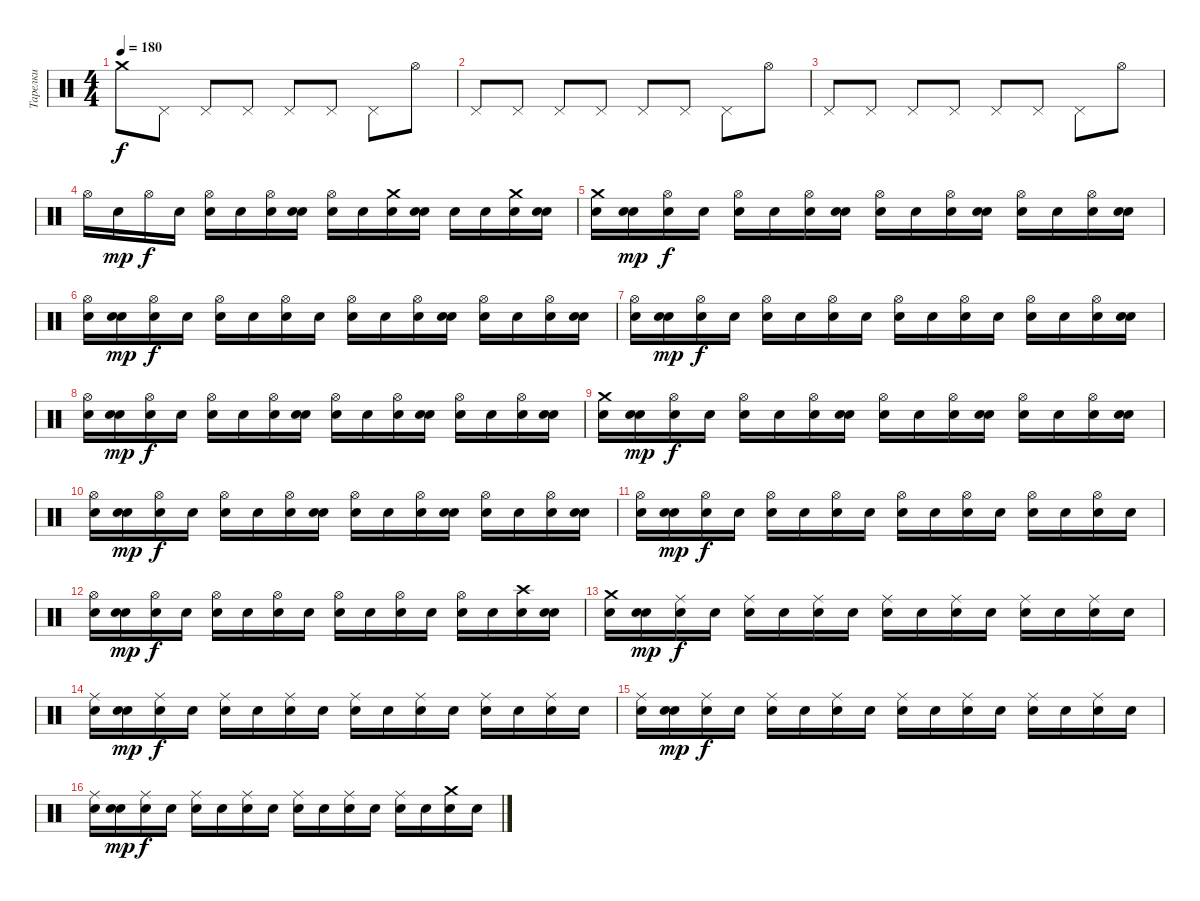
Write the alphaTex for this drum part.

\track ("Тарелки" "Тарелки") {instrument percussion}
\staff {score}
\articulation defaults
\ts (4 4)
\tempo 180
\clef neutral
\ks c "Crash medium (hit)".8{dy f} "Pedal Hi-Hat (hit)".8 "Pedal Hi-Hat (hit)".8 "Pedal Hi-Hat (hit)".8 "Pedal Hi-Hat (hit)".8 "Pedal Hi-Hat (hit)".8 "Pedal Hi-Hat (hit)".8 "Hi-Hat (open)".8
|
"Pedal Hi-Hat (hit)".8 "Pedal Hi-Hat (hit)".8 "Pedal Hi-Hat (hit)".8 "Pedal Hi-Hat (hit)".8 "Pedal Hi-Hat (hit)".8 "Pedal Hi-Hat (hit)".8 "Pedal Hi-Hat (hit)".8 "Hi-Hat (open)".8 |
"Pedal Hi-Hat (hit)".8 "Pedal Hi-Hat (hit)".8 "Pedal Hi-Hat (hit)".8 "Pedal Hi-Hat (hit)".8 "Pedal Hi-Hat (hit)".8 "Pedal Hi-Hat (hit)".8 "Pedal Hi-Hat (hit)".8 "Hi-Hat (open)".8 |
"Hi-Hat (open)".16 "Snare (hit)".16{dy mp} "Hi-Hat (open)".16{dy f} "Snare (hit)".16 ("Hi-Hat (open)" "Snare (hit)").16 "Snare (hit)".16 ("Hi-Hat (open)" "Snare (hit)").16 ("Snare (hit)" "Snare (hit)").16 ("Hi-Hat (open)" "Snare (hit)").16 "Snare (hit)".16 ("Crash medium (hit)" "Snare (hit)").16 ("Snare (hit)" "Snare (hit)").16 "Snare (hit)".16 "Snare (hit)".16 ("Crash medium (hit)" "Snare (hit)").16 ("Snare (hit)" "Snare (hit)").16 |
("Crash medium (hit)" "Snare (hit)").16 ("Snare (hit)" "Snare (hit)").16{dy mp} ("Hi-Hat (open)" "Snare (hit)").16{dy f} "Snare (hit)".16 ("Hi-Hat (open)" "Snare (hit)").16 "Snare (hit)".16 ("Hi-Hat (open)" "Snare (hit)").16 ("Snare (hit)" "Snare (hit)").16 ("Hi-Hat (open)" "Snare (hit)").16 "Snare (hit)".16 ("Hi-Hat (open)" "Snare (hit)").16 ("Snare (hit)" "Snare (hit)").16 ("Hi-Hat (open)" "Snare (hit)").16 "Snare (hit)".16 ("Hi-Hat (open)" "Snare (hit)").16 ("Snare (hit)" "Snare (hit)").16 |
("Hi-Hat (open)" "Snare (hit)").16 ("Snare (hit)" "Snare (hit)").16{dy mp} ("Hi-Hat (open)" "Snare (hit)").16{dy f} "Snare (hit)".16 ("Hi-Hat (open)" "Snare (hit)").16 "Snare (hit)".16 ("Hi-Hat (open)" "Snare (hit)").16 "Snare (hit)".16 ("Hi-Hat (open)" "Snare (hit)").16 "Snare (hit)".16 ("Hi-Hat (open)" "Snare (hit)").16 ("Snare (hit)" "Snare (hit)").16 ("Hi-Hat (open)" "Snare (hit)").16 "Snare (hit)".16 ("Hi-Hat (open)" "Snare (hit)").16 ("Snare (hit)" "Snare (hit)").16 |
("Hi-Hat (open)" "Snare (hit)").16 ("Snare (hit)" "Snare (hit)").16{dy mp} ("Hi-Hat (open)" "Snare (hit)").16{dy f} "Snare (hit)".16 ("Hi-Hat (open)" "Snare (hit)").16 "Snare (hit)".16 ("Hi-Hat (open)" "Snare (hit)").16 "Snare (hit)".16 ("Hi-Hat (open)" "Snare (hit)").16 "Snare (hit)".16 ("Hi-Hat (open)" "Snare (hit)").16 "Snare (hit)".16 ("Hi-Hat (open)" "Snare (hit)").16 "Snare (hit)".16 ("Hi-Hat (open)" "Snare (hit)").16 ("Snare (hit)" "Snare (hit)").16 |
("Hi-Hat (open)" "Snare (hit)").16 ("Snare (hit)" "Snare (hit)").16{dy mp} ("Hi-Hat (open)" "Snare (hit)").16{dy f} "Snare (hit)".16 ("Hi-Hat (open)" "Snare (hit)").16 "Snare (hit)".16 ("Hi-Hat (open)" "Snare (hit)").16 ("Snare (hit)" "Snare (hit)").16 ("Hi-Hat (open)" "Snare (hit)").16 "Snare (hit)".16 ("Hi-Hat (open)" "Snare (hit)").16 ("Snare (hit)" "Snare (hit)").16 ("Hi-Hat (open)" "Snare (hit)").16 "Snare (hit)".16 ("Hi-Hat (open)" "Snare (hit)").16 ("Snare (hit)" "Snare (hit)").16 |
("Crash medium (hit)" "Snare (hit)").16 ("Snare (hit)" "Snare (hit)").16{dy mp} ("Hi-Hat (open)" "Snare (hit)").16{dy f} "Snare (hit)".16 ("Hi-Hat (open)" "Snare (hit)").16 "Snare (hit)".16 ("Hi-Hat (open)" "Snare (hit)").16 ("Snare (hit)" "Snare (hit)").16 ("Hi-Hat (open)" "Snare (hit)").16 "Snare (hit)".16 ("Hi-Hat (open)" "Snare (hit)").16 ("Snare (hit)" "Snare (hit)").16 ("Hi-Hat (open)" "Snare (hit)").16 "Snare (hit)".16 ("Hi-Hat (open)" "Snare (hit)").16 ("Snare (hit)" "Snare (hit)").16 |
("Hi-Hat (open)" "Snare (hit)").16 ("Snare (hit)" "Snare (hit)").16{dy mp} ("Hi-Hat (open)" "Snare (hit)").16{dy f} "Snare (hit)".16 ("Hi-Hat (open)" "Snare (hit)").16 "Snare (hit)".16 ("Hi-Hat (open)" "Snare (hit)").16 ("Snare (hit)" "Snare (hit)").16 ("Hi-Hat (open)" "Snare (hit)").16 "Snare (hit)".16 ("Hi-Hat (open)" "Snare (hit)").16 ("Snare (hit)" "Snare (hit)").16 ("Hi-Hat (open)" "Snare (hit)").16 "Snare (hit)".16 ("Hi-Hat (open)" "Snare (hit)").16 ("Snare (hit)" "Snare (hit)").16 |
("Hi-Hat (open)" "Snare (hit)").16 ("Snare (hit)" "Snare (hit)").16{dy mp} ("Hi-Hat (open)" "Snare (hit)").16{dy f} "Snare (hit)".16 ("Hi-Hat (open)" "Snare (hit)").16 "Snare (hit)".16 ("Hi-Hat (open)" "Snare (hit)").16 "Snare (hit)".16 ("Hi-Hat (open)" "Snare (hit)").16 "Snare (hit)".16 ("Hi-Hat (open)" "Snare (hit)").16 "Snare (hit)".16 ("Hi-Hat (open)" "Snare (hit)").16 "Snare (hit)".16 ("Hi-Hat (open)" "Snare (hit)").16 "Snare (hit)".16 |
("Hi-Hat (open)" "Snare (hit)").16 ("Snare (hit)" "Snare (hit)").16{dy mp} ("Hi-Hat (open)" "Snare (hit)").16{dy f} "Snare (hit)".16 ("Hi-Hat (open)" "Snare (hit)").16 "Snare (hit)".16 ("Hi-Hat (open)" "Snare (hit)").16 "Snare (hit)".16 ("Hi-Hat (open)" "Snare (hit)").16 "Snare (hit)".16 ("Hi-Hat (open)" "Snare (hit)").16 "Snare (hit)".16 ("Hi-Hat (open)" "Snare (hit)").16 "Snare (hit)".16 ("Crash high (hit)" "Snare (hit)").16 ("Snare (hit)" "Snare (hit)").16 |
("Crash medium (hit)" "Snare (hit)").16 ("Snare (hit)" "Snare (hit)").16{dy mp} ("Ride (middle)" "Snare (hit)").16{dy f} "Snare (hit)".16 ("Ride (middle)" "Snare (hit)").16 "Snare (hit)".16 ("Ride (middle)" "Snare (hit)").16 "Snare (hit)".16 ("Ride (middle)" "Snare (hit)").16 "Snare (hit)".16 ("Ride (middle)" "Snare (hit)").16 "Snare (hit)".16 ("Ride (middle)" "Snare (hit)").16 "Snare (hit)".16 ("Ride (middle)" "Snare (hit)").16 "Snare (hit)".16 |
("Ride (middle)" "Snare (hit)").16 ("Snare (hit)" "Snare (hit)").16{dy mp} ("Ride (middle)" "Snare (hit)").16{dy f} "Snare (hit)".16 ("Ride (middle)" "Snare (hit)").16 "Snare (hit)".16 ("Ride (middle)" "Snare (hit)").16 "Snare (hit)".16 ("Ride (middle)" "Snare (hit)").16 "Snare (hit)".16 ("Ride (middle)" "Snare (hit)").16 "Snare (hit)".16 ("Ride (middle)" "Snare (hit)").16 "Snare (hit)".16 ("Ride (middle)" "Snare (hit)").16 "Snare (hit)".16 |
("Ride (middle)" "Snare (hit)").16 ("Snare (hit)" "Snare (hit)").16{dy mp} ("Ride (middle)" "Snare (hit)").16{dy f} "Snare (hit)".16 ("Ride (middle)" "Snare (hit)").16 "Snare (hit)".16 ("Ride (middle)" "Snare (hit)").16 "Snare (hit)".16 ("Ride (middle)" "Snare (hit)").16 "Snare (hit)".16 ("Ride (middle)" "Snare (hit)").16 "Snare (hit)".16 ("Ride (middle)" "Snare (hit)").16 "Snare (hit)".16 ("Ride (middle)" "Snare (hit)").16 "Snare (hit)".16 |
("Ride (middle)" "Snare (hit)").16 ("Snare (hit)" "Snare (hit)").16{dy mp} ("Ride (middle)" "Snare (hit)").16{dy f} "Snare (hit)".16 ("Ride (middle)" "Snare (hit)").16 "Snare (hit)".16 ("Ride (middle)" "Snare (hit)").16 "Snare (hit)".16 ("Ride (middle)" "Snare (hit)").16 "Snare (hit)".16 ("Ride (middle)" "Snare (hit)").16 "Snare (hit)".16 ("Ride (middle)" "Snare (hit)").16 "Snare (hit)".16 ("Crash medium (hit)" "Snare (hit)").16 "Snare (hit)".16
